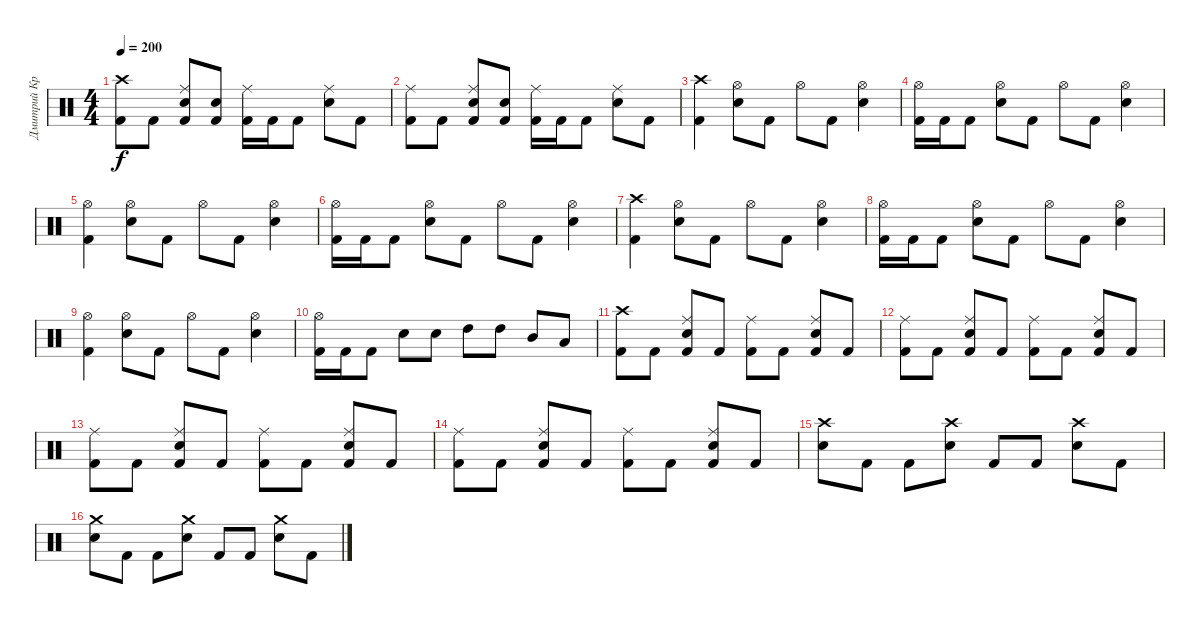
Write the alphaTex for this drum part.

\track ("Дмитрий Кривенков" "Дмитрий Кр") {instrument percussion}
\staff {score}
\articulation defaults
\ts (4 4)
\tempo 200
\clef neutral
\ks c
("Crash high (hit)" "Kick (hit) 2").8{dy f} "Kick (hit) 2".8 ("Ride (middle)" "Electric Snare (hit)" "Kick (hit) 2").8 ("Electric Snare (hit)" "Kick (hit) 2").8 ("Ride (middle)" "Kick (hit) 2").16 "Kick (hit) 2".16 "Kick (hit) 2".8 ("Ride (middle)" "Electric Snare (hit)").8 "Kick (hit) 2".8 |
("Ride (middle)" "Kick (hit) 2").8 "Kick (hit) 2".8 ("Ride (middle)" "Electric Snare (hit)" "Kick (hit) 2").8 ("Electric Snare (hit)" "Kick (hit) 2").8 ("Ride (middle)" "Kick (hit) 2").16 "Kick (hit) 2".16 "Kick (hit) 2".8 ("Ride (middle)" "Electric Snare (hit)").8 "Kick (hit) 2".8 |
("Crash high (hit)" "Kick (hit) 2").4 ("Hi-Hat (open)" "Electric Snare (hit)").8 "Kick (hit) 2".8 "Hi-Hat (open)".8 "Kick (hit) 2".8 ("Hi-Hat (open)" "Electric Snare (hit)").4 |
("Hi-Hat (open)" "Kick (hit) 2").16 "Kick (hit) 2".16 "Kick (hit) 2".8 ("Hi-Hat (open)" "Electric Snare (hit)").8 "Kick (hit) 2".8 "Hi-Hat (open)".8 "Kick (hit) 2".8 ("Hi-Hat (open)" "Electric Snare (hit)").4 |
("Hi-Hat (open)" "Kick (hit) 2").4 ("Hi-Hat (open)" "Electric Snare (hit)").8 "Kick (hit) 2".8 "Hi-Hat (open)".8 "Kick (hit) 2".8 ("Hi-Hat (open)" "Electric Snare (hit)").4 |
("Hi-Hat (open)" "Kick (hit) 2").16 "Kick (hit) 2".16 "Kick (hit) 2".8 ("Hi-Hat (open)" "Electric Snare (hit)").8 "Kick (hit) 2".8 "Hi-Hat (open)".8 "Kick (hit) 2".8 ("Hi-Hat (open)" "Electric Snare (hit)").4 |
("Crash high (hit)" "Kick (hit) 2").4 ("Hi-Hat (open)" "Electric Snare (hit)").8 "Kick (hit) 2".8 "Hi-Hat (open)".8 "Kick (hit) 2".8 ("Hi-Hat (open)" "Electric Snare (hit)").4 |
("Hi-Hat (open)" "Kick (hit) 2").16 "Kick (hit) 2".16 "Kick (hit) 2".8 ("Hi-Hat (open)" "Electric Snare (hit)").8 "Kick (hit) 2".8 "Hi-Hat (open)".8 "Kick (hit) 2".8 ("Hi-Hat (open)" "Electric Snare (hit)").4 |
("Hi-Hat (open)" "Kick (hit) 2").4 ("Hi-Hat (open)" "Electric Snare (hit)").8 "Kick (hit) 2".8 "Hi-Hat (open)".8 "Kick (hit) 2".8 ("Hi-Hat (open)" "Electric Snare (hit)").4 |
("Hi-Hat (open)" "Kick (hit) 2").16 "Kick (hit) 2".16 "Kick (hit) 2".8 "Electric Snare (hit)".8 "Electric Snare (hit)".8 "High Tom (hit)".8 "High Tom (hit)".8 "Mid Tom (hit)".8 "Low Tom (hit)".8 |
("Crash high (hit)" "Kick (hit) 2").8 "Kick (hit) 2".8 ("Ride (middle)" "Electric Snare (hit)" "Kick (hit) 2").8 "Kick (hit) 2".8 ("Ride (middle)" "Kick (hit) 2").8 "Kick (hit) 2".8 ("Ride (middle)" "Electric Snare (hit)" "Kick (hit) 2").8 "Kick (hit) 2".8 |
("Ride (middle)" "Kick (hit) 2").8 "Kick (hit) 2".8 ("Ride (middle)" "Electric Snare (hit)" "Kick (hit) 2").8 "Kick (hit) 2".8 ("Ride (middle)" "Kick (hit) 2").8 "Kick (hit) 2".8 ("Ride (middle)" "Electric Snare (hit)" "Kick (hit) 2").8 "Kick (hit) 2".8 |
("Ride (middle)" "Kick (hit) 2").8 "Kick (hit) 2".8 ("Ride (middle)" "Electric Snare (hit)" "Kick (hit) 2").8 "Kick (hit) 2".8 ("Ride (middle)" "Kick (hit) 2").8 "Kick (hit) 2".8 ("Ride (middle)" "Electric Snare (hit)" "Kick (hit) 2").8 "Kick (hit) 2".8 |
("Ride (middle)" "Kick (hit) 2").8 "Kick (hit) 2".8 ("Ride (middle)" "Electric Snare (hit)" "Kick (hit) 2").8 "Kick (hit) 2".8 ("Ride (middle)" "Kick (hit) 2").8 "Kick (hit) 2".8 ("Ride (middle)" "Electric Snare (hit)" "Kick (hit) 2").8 "Kick (hit) 2".8 |
("Crash high (hit)" "Electric Snare (hit)").8 "Kick (hit) 2".8 "Kick (hit) 2".8 ("Crash high (hit)" "Electric Snare (hit)").8 "Kick (hit) 2".8 "Kick (hit) 2".8 ("Crash high (hit)" "Electric Snare (hit)").8 "Kick (hit) 2".8 |
("Crash medium (hit)" "Electric Snare (hit)").8 "Kick (hit) 2".8 "Kick (hit) 2".8 ("Crash medium (hit)" "Electric Snare (hit)").8 "Kick (hit) 2".8 "Kick (hit) 2".8 ("Crash medium (hit)" "Electric Snare (hit)").8 "Kick (hit) 2".8
